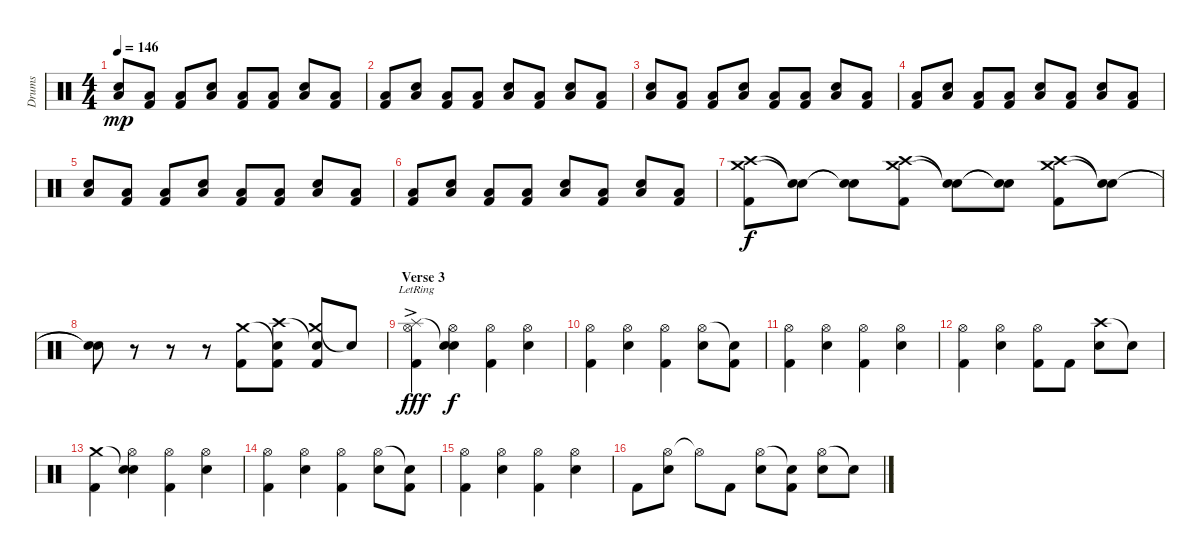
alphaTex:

\track ("Drums" "Drums") {instrument percussion}
\staff {score}
\articulation defaults
\ts (4 4)
\tempo 146
\clef neutral
\ks c
("Low Floor Tom (hit)" "Electric Snare (hit)").8{dy mp} ("Low Floor Tom (hit)" "Kick (hit) 2").8 ("Low Floor Tom (hit)" "Kick (hit) 2").8 ("Low Floor Tom (hit)" "Electric Snare (hit)").8 ("Low Floor Tom (hit)" "Kick (hit) 2").8 ("Low Floor Tom (hit)" "Kick (hit) 2").8 ("Low Floor Tom (hit)" "Electric Snare (hit)").8 ("Low Floor Tom (hit)" "Kick (hit) 2").8 |
("Low Floor Tom (hit)" "Kick (hit) 2").8 ("Low Floor Tom (hit)" "Electric Snare (hit)").8 ("Low Floor Tom (hit)" "Kick (hit) 2").8 ("Low Floor Tom (hit)" "Kick (hit) 2").8 ("Low Floor Tom (hit)" "Electric Snare (hit)").8 ("Low Floor Tom (hit)" "Kick (hit) 2").8 ("Low Floor Tom (hit)" "Electric Snare (hit)").8 ("Low Floor Tom (hit)" "Kick (hit) 2").8 |
("Low Floor Tom (hit)" "Electric Snare (hit)").8 ("Low Floor Tom (hit)" "Kick (hit) 2").8 ("Low Floor Tom (hit)" "Kick (hit) 2").8 ("Low Floor Tom (hit)" "Electric Snare (hit)").8 ("Low Floor Tom (hit)" "Kick (hit) 2").8 ("Low Floor Tom (hit)" "Kick (hit) 2").8 ("Low Floor Tom (hit)" "Electric Snare (hit)").8 ("Low Floor Tom (hit)" "Kick (hit) 2").8 |
("Low Floor Tom (hit)" "Kick (hit) 2").8 ("Low Floor Tom (hit)" "Electric Snare (hit)").8 ("Low Floor Tom (hit)" "Kick (hit) 2").8 ("Low Floor Tom (hit)" "Kick (hit) 2").8 ("Low Floor Tom (hit)" "Electric Snare (hit)").8 ("Low Floor Tom (hit)" "Kick (hit) 2").8 ("Low Floor Tom (hit)" "Electric Snare (hit)").8 ("Low Floor Tom (hit)" "Kick (hit) 2").8 |
("Low Floor Tom (hit)" "Electric Snare (hit)").8 ("Low Floor Tom (hit)" "Kick (hit) 2").8 ("Low Floor Tom (hit)" "Kick (hit) 2").8 ("Low Floor Tom (hit)" "Electric Snare (hit)").8 ("Low Floor Tom (hit)" "Kick (hit) 2").8 ("Low Floor Tom (hit)" "Kick (hit) 2").8 ("Low Floor Tom (hit)" "Electric Snare (hit)").8 ("Low Floor Tom (hit)" "Kick (hit) 2").8 |
("Low Floor Tom (hit)" "Kick (hit) 2").8 ("Low Floor Tom (hit)" "Electric Snare (hit)").8 ("Low Floor Tom (hit)" "Kick (hit) 2").8 ("Low Floor Tom (hit)" "Kick (hit) 2").8 ("Low Floor Tom (hit)" "Electric Snare (hit)").8 ("Low Floor Tom (hit)" "Kick (hit) 2").8 ("Low Floor Tom (hit)" "Electric Snare (hit)").8 ("Low Floor Tom (hit)" "Kick (hit) 2").8 |
("Crash medium (hit)" "Crash high (hit)" "Kick (hit) 2").8{dy f} ("Snare (hit)"{t} "Snare (hit)"{t}).8 ("Snare (hit)"{t} "Snare (hit)"{t}).8 ("Crash medium (hit)" "Crash high (hit)" "Kick (hit) 2").8 ("Snare (hit)"{t} "Snare (hit)"{t}).8 ("Snare (hit)"{t} "Snare (hit)"{t}).8 ("Crash medium (hit)" "Crash high (hit)" "Kick (hit) 2").8 ("Snare (hit)"{t} "Snare (hit)"{t}).8 |
("Snare (hit)"{t} "Snare (hit)"{t}).8 r.8 r.8 r.8 ("Crash medium (hit)" "Kick (hit) 2").8 ("Snare (hit)"{t} "Crash high (hit)" "Kick (hit) 2").8 ("Crash medium (hit)" "Snare (hit)"{t} "Kick (hit) 2").8 "Snare (hit)"{t}.8 |
\section ("" "Verse 3")
("Splash (hit)"{ac} "Hi-Hat (open)"{lr} "Kick (hit) 2").4{dy fff} ("Snare (hit)"{t} "Hi-Hat (open)" "Electric Snare (hit)").4{dy f} ("Hi-Hat (open)" "Kick (hit) 2").4 ("Hi-Hat (open)" "Electric Snare (hit)").4 |
("Hi-Hat (open)" "Kick (hit) 2").4 ("Hi-Hat (open)" "Electric Snare (hit)").4 ("Hi-Hat (open)" "Kick (hit) 2").4 ("Hi-Hat (open)" "Electric Snare (hit)").8 ("Snare (hit)"{t} "Kick (hit) 2").8 |
("Hi-Hat (open)" "Kick (hit) 2").4 ("Hi-Hat (open)" "Electric Snare (hit)").4 ("Hi-Hat (open)" "Kick (hit) 2").4 ("Hi-Hat (open)" "Electric Snare (hit)").4 |
("Hi-Hat (open)" "Kick (hit) 2").4 ("Hi-Hat (open)" "Electric Snare (hit)").4 ("Hi-Hat (open)" "Kick (hit) 2").8 "Kick (hit) 2".8 ("Crash high (hit)" "Electric Snare (hit)").8 "Snare (hit)"{t}.8 |
("Crash medium (hit)" "Kick (hit) 2").4 ("Snare (hit)"{t} "Hi-Hat (open)" "Electric Snare (hit)").4 ("Hi-Hat (open)" "Kick (hit) 2").4 ("Hi-Hat (open)" "Electric Snare (hit)").4 |
("Hi-Hat (open)" "Kick (hit) 2").4 ("Hi-Hat (open)" "Electric Snare (hit)").4 ("Hi-Hat (open)" "Kick (hit) 2").4 ("Hi-Hat (open)" "Electric Snare (hit)").8 ("Snare (hit)"{t} "Kick (hit) 2").8 |
("Hi-Hat (open)" "Kick (hit) 2").4 ("Hi-Hat (open)" "Electric Snare (hit)").4 ("Hi-Hat (open)" "Kick (hit) 2").4 ("Hi-Hat (open)" "Electric Snare (hit)").4 |
"Kick (hit) 2".8 ("Hi-Hat (open)" "Electric Snare (hit)").8 "Hi-Hat (open)"{t}.8 "Kick (hit) 2".8 ("Hi-Hat (open)" "Electric Snare (hit)").8 ("Snare (hit)"{t} "Kick (hit) 2").8 ("Hi-Hat (open)" "Electric Snare (hit)").8 "Snare (hit)"{t}.8
